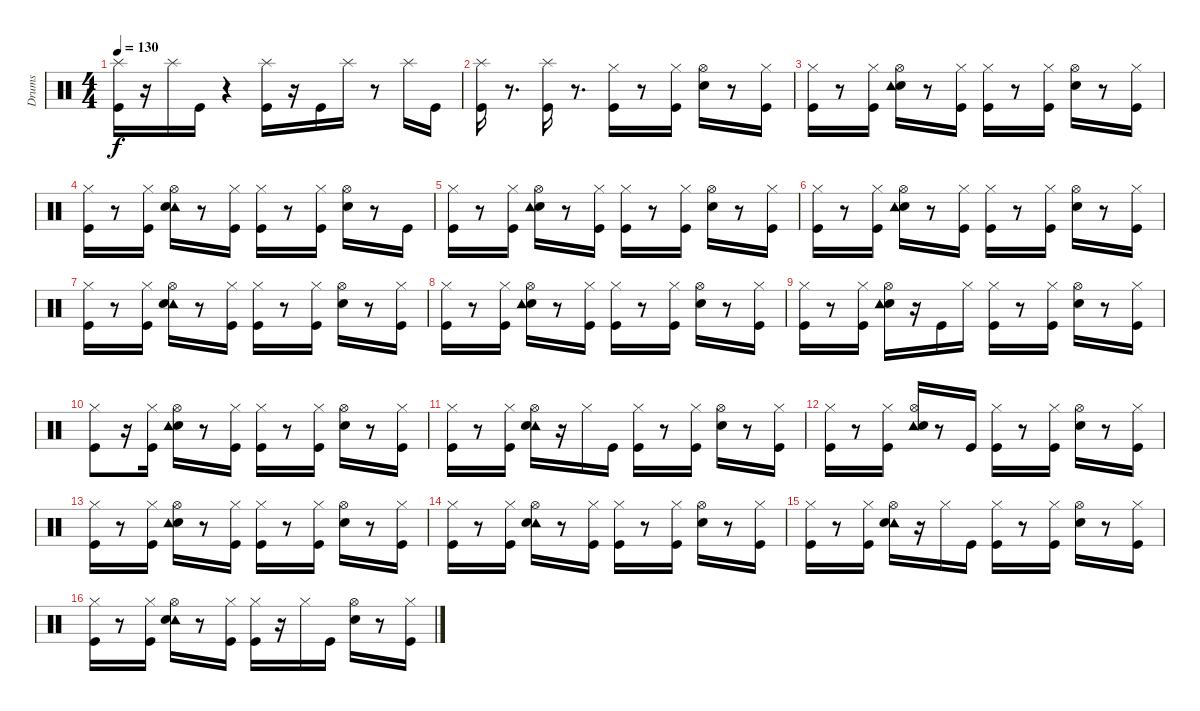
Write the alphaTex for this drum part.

\track ("Drums" "Drums") {instrument percussion}
\staff {score}
\articulation defaults
\ts (4 4)
\tempo 130
\clef neutral
\ks c
("Kick (hit)" "Splash (hit)").16{dy f} r.16 "Splash (hit)".16 "Kick (hit)".16 r.4 ("Kick (hit)" "Splash (hit)").16 r.16 "Kick (hit)".16 "Splash (hit)".16 r.8 "Splash (hit)".16 "Kick (hit)".16 |
("Kick (hit)" "Splash (hit)").16 r.8{d} ("Kick (hit)" "Splash (hit)").16 r.8{d} ("Hi-Hat (closed)" "Kick (hit)").16 r.8 ("Kick (hit)" "Hi-Hat (closed)").16 ("Electric Snare (hit)" "Hi-Hat (open)").16 r.8 ("Kick (hit)" "Hi-Hat (closed)").16 |
("Kick (hit)" "Hi-Hat (closed)").16 r.8 ("Kick (hit)" "Hi-Hat (closed)").16 ("Electric Snare (hit)" "Tambourine (hit)" "Hi-Hat (open)").16 r.8 ("Kick (hit)" "Hi-Hat (closed)").16 ("Kick (hit)" "Hi-Hat (closed)").16 r.8 ("Kick (hit)" "Hi-Hat (closed)").16 ("Hi-Hat (open)" "Electric Snare (hit)").16 r.8 ("Kick (hit)" "Hi-Hat (closed)").16 |
("Kick (hit)" "Hi-Hat (closed)").16 r.8 ("Hi-Hat (closed)" "Kick (hit)").16 ("Tambourine (hit)" "Electric Snare (hit)" "Hi-Hat (open)").16 r.8 ("Hi-Hat (closed)" "Kick (hit)").16 ("Kick (hit)" "Hi-Hat (closed)").16 r.8 ("Kick (hit)" "Hi-Hat (closed)").16 ("Electric Snare (hit)" "Hi-Hat (open)").16 r.8 "Kick (hit)".16 |
("Kick (hit)" "Hi-Hat (closed)").16 r.8 ("Kick (hit)" "Hi-Hat (closed)").16 ("Electric Snare (hit)" "Hi-Hat (open)" "Tambourine (hit)").16 r.8 ("Hi-Hat (closed)" "Kick (hit)").16 ("Hi-Hat (closed)" "Kick (hit)").16 r.8 ("Kick (hit)" "Hi-Hat (closed)").16 ("Electric Snare (hit)" "Hi-Hat (open)").16 r.8 ("Hi-Hat (closed)" "Kick (hit)").16 |
("Kick (hit)" "Hi-Hat (closed)").16 r.8 ("Kick (hit)" "Hi-Hat (closed)").16 ("Electric Snare (hit)" "Tambourine (hit)" "Hi-Hat (open)").16 r.8 ("Kick (hit)" "Hi-Hat (closed)").16 ("Kick (hit)" "Hi-Hat (closed)").16 r.8 ("Kick (hit)" "Hi-Hat (closed)").16 ("Electric Snare (hit)" "Hi-Hat (open)").16 r.8 ("Kick (hit)" "Hi-Hat (closed)").16 |
("Kick (hit)" "Hi-Hat (closed)").16 r.8 ("Hi-Hat (closed)" "Kick (hit)").16 ("Hi-Hat (open)" "Tambourine (hit)" "Electric Snare (hit)").16 r.8 ("Kick (hit)" "Hi-Hat (closed)").16 ("Kick (hit)" "Hi-Hat (closed)").16 r.8 ("Hi-Hat (closed)" "Kick (hit)").16 ("Electric Snare (hit)" "Hi-Hat (open)").16 r.8 ("Kick (hit)" "Hi-Hat (closed)").16 |
("Kick (hit)" "Hi-Hat (closed)").16 r.8 ("Kick (hit)" "Hi-Hat (closed)").16 ("Electric Snare (hit)" "Tambourine (hit)" "Hi-Hat (open)").16 r.8 ("Hi-Hat (closed)" "Kick (hit)").16 ("Kick (hit)" "Hi-Hat (closed)").16 r.8 ("Hi-Hat (closed)" "Kick (hit)").16 ("Hi-Hat (open)" "Electric Snare (hit)").16 r.8 ("Hi-Hat (closed)" "Kick (hit)").16 |
("Hi-Hat (closed)" "Kick (hit)").16 r.8 ("Hi-Hat (closed)" "Kick (hit)").16 ("Electric Snare (hit)" "Tambourine (hit)" "Hi-Hat (open)").16 r.16 "Kick (hit)".16 "Hi-Hat (closed)".16 ("Kick (hit)" "Hi-Hat (closed)").16 r.8 ("Hi-Hat (closed)" "Kick (hit)").16 ("Electric Snare (hit)" "Hi-Hat (open)").16 r.8 ("Kick (hit)" "Hi-Hat (closed)").16 |
("Kick (hit)" "Hi-Hat (closed)").8 r.16 ("Kick (hit)" "Hi-Hat (closed)").16 ("Hi-Hat (open)" "Electric Snare (hit)" "Tambourine (hit)").16 r.8 ("Kick (hit)" "Hi-Hat (closed)").16 ("Hi-Hat (closed)" "Kick (hit)").16 r.8 ("Kick (hit)" "Hi-Hat (closed)").16 ("Electric Snare (hit)" "Hi-Hat (open)").16 r.8 ("Kick (hit)" "Hi-Hat (closed)").16 |
("Kick (hit)" "Hi-Hat (closed)").16 r.8 ("Kick (hit)" "Hi-Hat (closed)").16 ("Hi-Hat (open)" "Tambourine (hit)" "Electric Snare (hit)").16 r.16 "Hi-Hat (closed)".16 "Kick (hit)".16 ("Hi-Hat (closed)" "Kick (hit)").16 r.8 ("Kick (hit)" "Hi-Hat (closed)").16 ("Electric Snare (hit)" "Hi-Hat (open)").16 r.8 ("Hi-Hat (closed)" "Kick (hit)").16 |
("Kick (hit)" "Hi-Hat (closed)").16 r.8 ("Hi-Hat (closed)" "Kick (hit)").16 ("Tambourine (hit)" "Electric Snare (hit)" "Hi-Hat (open)").16 r.8 "Kick (hit)".16 ("Kick (hit)" "Hi-Hat (closed)").16 r.8 ("Kick (hit)" "Hi-Hat (closed)").16 ("Electric Snare (hit)" "Hi-Hat (open)").16 r.8 ("Kick (hit)" "Hi-Hat (closed)").16 |
("Kick (hit)" "Hi-Hat (closed)").16 r.8 ("Kick (hit)" "Hi-Hat (closed)").16 ("Electric Snare (hit)" "Tambourine (hit)" "Hi-Hat (open)").16 r.8 ("Hi-Hat (closed)" "Kick (hit)").16 ("Kick (hit)" "Hi-Hat (closed)").16 r.8 ("Kick (hit)" "Hi-Hat (closed)").16 ("Electric Snare (hit)" "Hi-Hat (open)").16 r.8 ("Hi-Hat (closed)" "Kick (hit)").16 |
("Kick (hit)" "Hi-Hat (closed)").16 r.8 ("Kick (hit)" "Hi-Hat (closed)").16 ("Tambourine (hit)" "Hi-Hat (open)" "Electric Snare (hit)").16 r.8 ("Kick (hit)" "Hi-Hat (closed)").16 ("Hi-Hat (closed)" "Kick (hit)").16 r.8 ("Hi-Hat (closed)" "Kick (hit)").16 ("Electric Snare (hit)" "Hi-Hat (open)").16 r.8 ("Hi-Hat (closed)" "Kick (hit)").16 |
("Kick (hit)" "Hi-Hat (closed)").16 r.8 ("Kick (hit)" "Hi-Hat (closed)").16 ("Tambourine (hit)" "Electric Snare (hit)" "Hi-Hat (open)").16 r.16 "Hi-Hat (closed)".16 "Kick (hit)".16 ("Kick (hit)" "Hi-Hat (closed)").16 r.8 ("Kick (hit)" "Hi-Hat (closed)").16 ("Electric Snare (hit)" "Hi-Hat (open)").16 r.8 ("Kick (hit)" "Hi-Hat (closed)").16 |
("Hi-Hat (closed)" "Kick (hit)").16 r.8 ("Hi-Hat (closed)" "Kick (hit)").16 ("Hi-Hat (open)" "Tambourine (hit)" "Electric Snare (hit)").16 r.8 ("Kick (hit)" "Hi-Hat (closed)").16 ("Kick (hit)" "Hi-Hat (closed)").16 r.16 "Hi-Hat (closed)".16 "Kick (hit)".16 ("Electric Snare (hit)" "Hi-Hat (open)").16 r.8 ("Hi-Hat (closed)" "Kick (hit)").16
